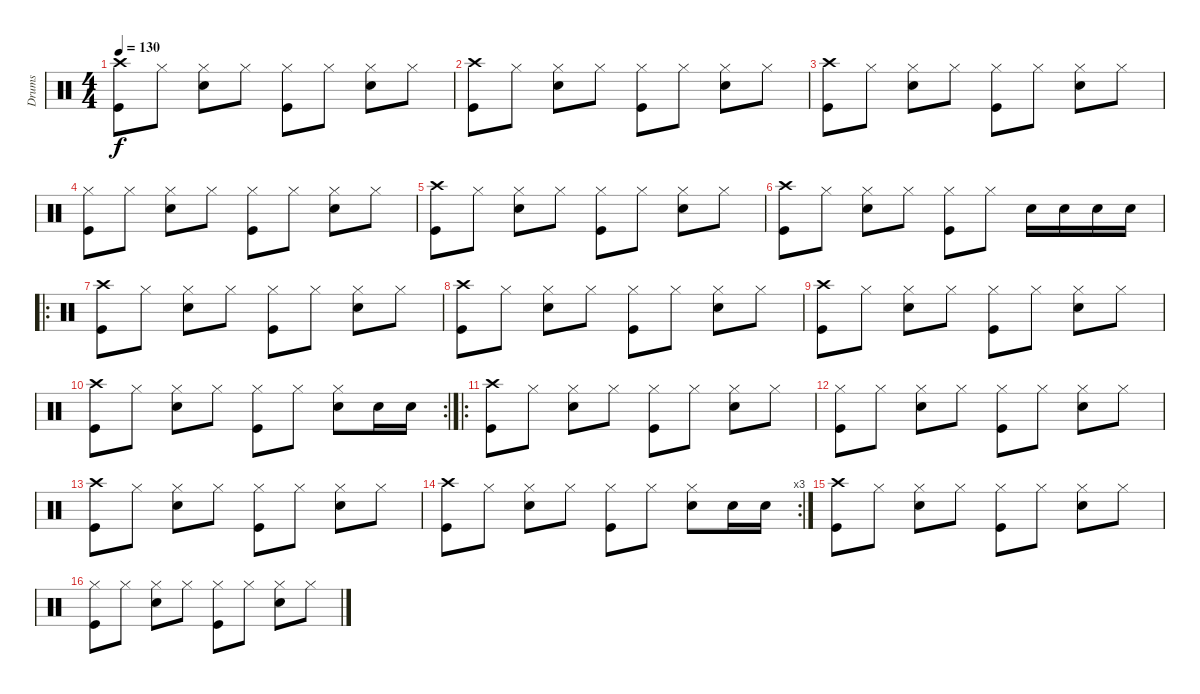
\track ("Drums" "Drums") {instrument percussion}
\staff {score}
\articulation defaults
\ts (4 4)
\tempo 130
\clef neutral
\ks c
("Crash high (hit)" "Kick (hit)").8{dy f} "Hi-Hat (closed)".8 ("Hi-Hat (closed)" "Snare (hit) 2").8 "Hi-Hat (closed)".8 ("Hi-Hat (closed)" "Kick (hit)").8 "Hi-Hat (closed)".8 ("Hi-Hat (closed)" "Snare (hit) 2").8 "Hi-Hat (closed)".8 |
("Crash high (hit)" "Kick (hit)").8 "Hi-Hat (closed)".8 ("Hi-Hat (closed)" "Snare (hit) 2").8 "Hi-Hat (closed)".8 ("Hi-Hat (closed)" "Kick (hit)").8 "Hi-Hat (closed)".8 ("Hi-Hat (closed)" "Snare (hit) 2").8 "Hi-Hat (closed)".8 |
("Crash high (hit)" "Kick (hit)").8 "Hi-Hat (closed)".8 ("Hi-Hat (closed)" "Snare (hit) 2").8 "Hi-Hat (closed)".8 ("Hi-Hat (closed)" "Kick (hit)").8 "Hi-Hat (closed)".8 ("Hi-Hat (closed)" "Snare (hit) 2").8 "Hi-Hat (closed)".8 |
("Hi-Hat (closed)" "Kick (hit)").8 "Hi-Hat (closed)".8 ("Hi-Hat (closed)" "Snare (hit) 2").8 "Hi-Hat (closed)".8 ("Hi-Hat (closed)" "Kick (hit)").8 "Hi-Hat (closed)".8 ("Hi-Hat (closed)" "Snare (hit) 2").8 "Hi-Hat (closed)".8 |
("Crash high (hit)" "Kick (hit)").8 "Hi-Hat (closed)".8 ("Hi-Hat (closed)" "Snare (hit) 2").8 "Hi-Hat (closed)".8 ("Hi-Hat (closed)" "Kick (hit)").8 "Hi-Hat (closed)".8 ("Hi-Hat (closed)" "Snare (hit) 2").8 "Hi-Hat (closed)".8 |
("Crash high (hit)" "Kick (hit)").8 "Hi-Hat (closed)".8 ("Hi-Hat (closed)" "Snare (hit) 2").8 "Hi-Hat (closed)".8 ("Hi-Hat (closed)" "Kick (hit)").8 "Hi-Hat (closed)".8 "Snare (hit) 2".16 "Snare (hit) 2".16 "Snare (hit) 2".16 "Snare (hit) 2".16 |
\ro
("Crash high (hit)" "Kick (hit)").8 "Hi-Hat (closed)".8 ("Hi-Hat (closed)" "Snare (hit) 2").8 "Hi-Hat (closed)".8 ("Hi-Hat (closed)" "Kick (hit)").8 "Hi-Hat (closed)".8 ("Hi-Hat (closed)" "Snare (hit) 2").8 "Hi-Hat (closed)".8 |
("Crash high (hit)" "Kick (hit)").8 "Hi-Hat (closed)".8 ("Hi-Hat (closed)" "Snare (hit) 2").8 "Hi-Hat (closed)".8 ("Hi-Hat (closed)" "Kick (hit)").8 "Hi-Hat (closed)".8 ("Hi-Hat (closed)" "Snare (hit) 2").8 "Hi-Hat (closed)".8 |
("Crash high (hit)" "Kick (hit)").8 "Hi-Hat (closed)".8 ("Hi-Hat (closed)" "Snare (hit) 2").8 "Hi-Hat (closed)".8 ("Hi-Hat (closed)" "Kick (hit)").8 "Hi-Hat (closed)".8 ("Hi-Hat (closed)" "Snare (hit) 2").8 "Hi-Hat (closed)".8 |
\rc 2
("Crash high (hit)" "Kick (hit)").8 "Hi-Hat (closed)".8 ("Hi-Hat (closed)" "Snare (hit) 2").8 "Hi-Hat (closed)".8 ("Hi-Hat (closed)" "Kick (hit)").8 "Hi-Hat (closed)".8 ("Hi-Hat (closed)" "Snare (hit) 2").8 "Snare (hit) 2".16 "Snare (hit) 2".16 |
\ro
("Crash high (hit)" "Kick (hit)").8 "Hi-Hat (closed)".8 ("Hi-Hat (closed)" "Snare (hit) 2").8 "Hi-Hat (closed)".8 ("Hi-Hat (closed)" "Kick (hit)").8 "Hi-Hat (closed)".8 ("Hi-Hat (closed)" "Snare (hit) 2").8 "Hi-Hat (closed)".8 |
("Hi-Hat (closed)" "Kick (hit)").8 "Hi-Hat (closed)".8 ("Hi-Hat (closed)" "Snare (hit) 2").8 "Hi-Hat (closed)".8 ("Hi-Hat (closed)" "Kick (hit)").8 "Hi-Hat (closed)".8 ("Hi-Hat (closed)" "Snare (hit) 2").8 "Hi-Hat (closed)".8 |
("Crash high (hit)" "Kick (hit)").8 "Hi-Hat (closed)".8 ("Hi-Hat (closed)" "Snare (hit) 2").8 "Hi-Hat (closed)".8 ("Hi-Hat (closed)" "Kick (hit)").8 "Hi-Hat (closed)".8 ("Hi-Hat (closed)" "Snare (hit) 2").8 "Hi-Hat (closed)".8 |
\rc 3
("Crash high (hit)" "Kick (hit)").8 "Hi-Hat (closed)".8 ("Hi-Hat (closed)" "Snare (hit) 2").8 "Hi-Hat (closed)".8 ("Hi-Hat (closed)" "Kick (hit)").8 "Hi-Hat (closed)".8 ("Hi-Hat (closed)" "Snare (hit) 2").8 "Snare (hit) 2".16 "Snare (hit) 2".16 |
("Crash high (hit)" "Kick (hit)").8 "Hi-Hat (closed)".8 ("Hi-Hat (closed)" "Snare (hit) 2").8 "Hi-Hat (closed)".8 ("Hi-Hat (closed)" "Kick (hit)").8 "Hi-Hat (closed)".8 ("Hi-Hat (closed)" "Snare (hit) 2").8 "Hi-Hat (closed)".8 |
("Hi-Hat (closed)" "Kick (hit)").8 "Hi-Hat (closed)".8 ("Hi-Hat (closed)" "Snare (hit) 2").8 "Hi-Hat (closed)".8 ("Hi-Hat (closed)" "Kick (hit)").8 "Hi-Hat (closed)".8 ("Hi-Hat (closed)" "Snare (hit) 2").8 "Hi-Hat (closed)".8
